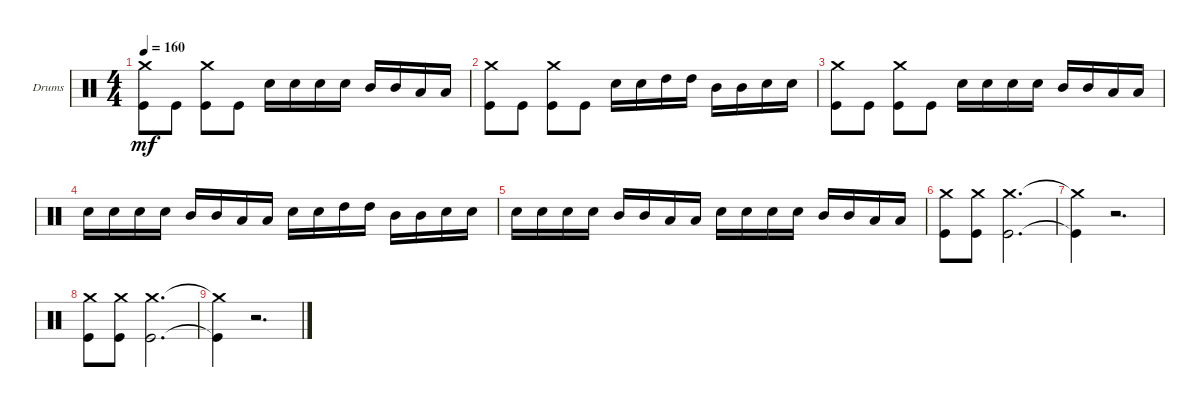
\bracketExtendMode groupsimilarinstruments
\firstSystemTrackNameOrientation horizontal
\otherSystemsTrackNameOrientation horizontal
\track ("Drums" "Drums") {instrument percussion}
\staff {score}
\articulation defaults
\ts (4 4)
\tempo 160
\clef neutral
\ks c
("Kick (hit)" "Crash medium (hit)").8{dy mf} "Kick (hit)".8 ("Kick (hit)" "Crash medium (hit)").8 "Kick (hit)".8 "Snare (hit) 2".16 "Snare (hit) 2".16 "Snare (hit) 2".16 "Snare (hit) 2".16 "Mid Tom (hit)".16 "Mid Tom (hit)".16 "Low Tom (hit)".16 "Low Tom (hit)".16 |
("Kick (hit)" "Crash medium (hit)").8 "Kick (hit)".8 ("Kick (hit)" "Crash medium (hit)").8 "Kick (hit)".8 "Snare (hit) 2".16 "Snare (hit) 2".16 "High Tom (hit)".16 "High Tom (hit)".16 "Mid Tom (hit)".16 "Mid Tom (hit)".16 "Snare (hit) 2".16 "Snare (hit) 2".16 |
("Kick (hit)" "Crash medium (hit)").8 "Kick (hit)".8 ("Kick (hit)" "Crash medium (hit)").8 "Kick (hit)".8 "Snare (hit) 2".16 "Snare (hit) 2".16 "Snare (hit) 2".16 "Snare (hit) 2".16 "Mid Tom (hit)".16 "Mid Tom (hit)".16 "Low Tom (hit)".16 "Low Tom (hit)".16 |
"Snare (hit) 2".16 "Snare (hit) 2".16 "Snare (hit) 2".16 "Snare (hit) 2".16 "Mid Tom (hit)".16 "Mid Tom (hit)".16 "Low Tom (hit)".16 "Low Tom (hit)".16 "Snare (hit) 2".16 "Snare (hit) 2".16 "High Tom (hit)".16 "High Tom (hit)".16 "Mid Tom (hit)".16 "Mid Tom (hit)".16 "Snare (hit) 2".16 "Snare (hit) 2".16 |
"Snare (hit) 2".16 "Snare (hit) 2".16 "Snare (hit) 2".16 "Snare (hit) 2".16 "Mid Tom (hit)".16 "Mid Tom (hit)".16 "Low Tom (hit)".16 "Low Tom (hit)".16 "Snare (hit) 2".16 "Snare (hit) 2".16 "Snare (hit) 2".16 "Snare (hit) 2".16 "Mid Tom (hit)".16 "Mid Tom (hit)".16 "Low Tom (hit)".16 "Low Tom (hit)".16 |
("Kick (hit)" "Crash medium (hit)").8 ("Kick (hit)" "Crash medium (hit)").8 ("Kick (hit)" "Crash medium (hit)").2{d} |
("Kick (hit)"{t} "Crash medium (hit)"{t}).4 r.2{d} |
("Kick (hit)" "Crash medium (hit)").8 ("Kick (hit)" "Crash medium (hit)").8 ("Kick (hit)" "Crash medium (hit)").2{d} |
("Kick (hit)"{t} "Crash medium (hit)"{t}).4 r.2{d}
